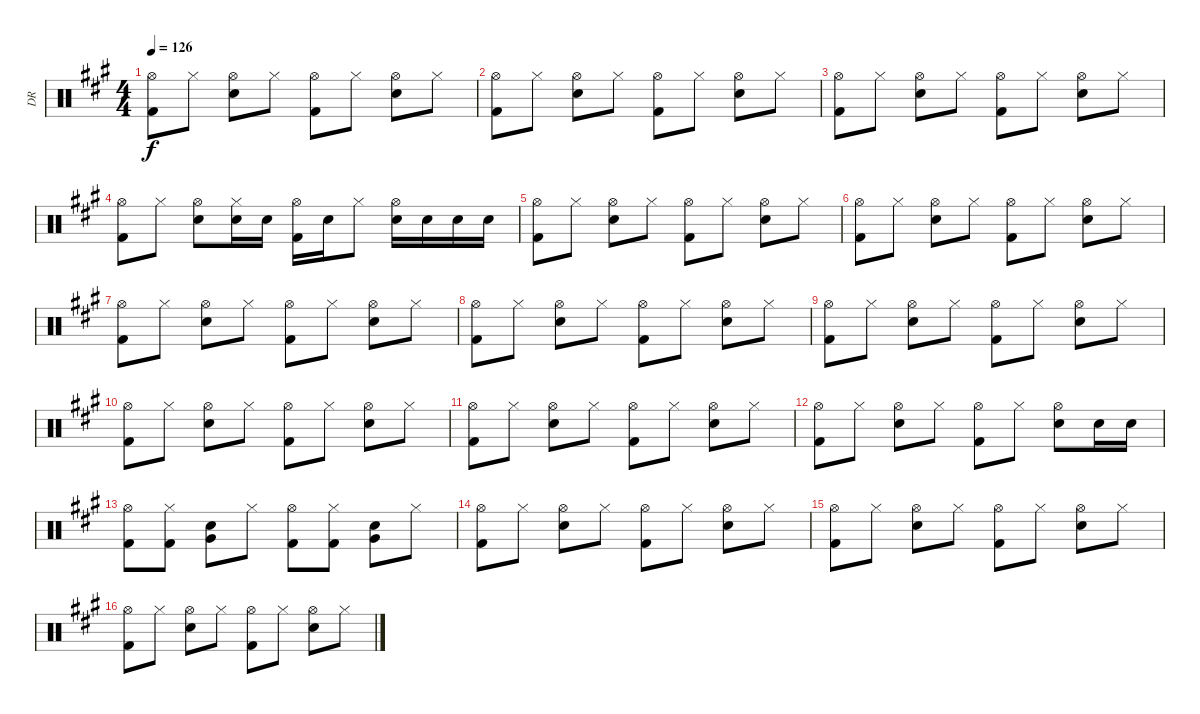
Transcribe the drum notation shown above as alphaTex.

\track ("DR" "DR") {instrument percussion}
\staff {score}
\articulation defaults
\ts (4 4)
\tempo 126
\clef neutral
\ks f#minor
("Hi-Hat (open)" "Kick (hit) 2").8{dy f} "Hi-Hat (closed)".8 ("Hi-Hat (open)" "Electric Snare (hit)").8 "Hi-Hat (closed)".8 ("Hi-Hat (open)" "Kick (hit) 2").8 "Hi-Hat (closed)".8 ("Hi-Hat (open)" "Electric Snare (hit)").8 "Hi-Hat (closed)".8 |
("Hi-Hat (open)" "Kick (hit) 2").8 "Hi-Hat (closed)".8 ("Hi-Hat (open)" "Electric Snare (hit)").8 "Hi-Hat (closed)".8 ("Hi-Hat (open)" "Kick (hit) 2").8 "Hi-Hat (closed)".8 ("Hi-Hat (open)" "Electric Snare (hit)").8 "Hi-Hat (closed)".8 |
("Hi-Hat (open)" "Kick (hit) 2").8 "Hi-Hat (closed)".8 ("Hi-Hat (open)" "Electric Snare (hit)").8 "Hi-Hat (closed)".8 ("Hi-Hat (open)" "Kick (hit) 2").8 "Hi-Hat (closed)".8 ("Hi-Hat (open)" "Electric Snare (hit)").8 "Hi-Hat (closed)".8 |
("Hi-Hat (open)" "Kick (hit) 2").8 "Hi-Hat (closed)".8 ("Hi-Hat (open)" "Electric Snare (hit)").8 ("Hi-Hat (closed)" "Electric Snare (hit)").16 "Electric Snare (hit)".16 ("Hi-Hat (open)" "Kick (hit) 2").16 "Electric Snare (hit)".16 "Hi-Hat (closed)".8 ("Hi-Hat (open)" "Electric Snare (hit)").16 "Electric Snare (hit)".16 "Electric Snare (hit)".16 "Electric Snare (hit)".16 |
("Hi-Hat (open)" "Kick (hit) 2").8 "Hi-Hat (closed)".8 ("Hi-Hat (open)" "Electric Snare (hit)").8 "Hi-Hat (closed)".8 ("Hi-Hat (open)" "Kick (hit) 2").8 "Hi-Hat (closed)".8 ("Hi-Hat (open)" "Electric Snare (hit)").8 "Hi-Hat (closed)".8 |
("Hi-Hat (open)" "Kick (hit) 2").8 "Hi-Hat (closed)".8 ("Hi-Hat (open)" "Electric Snare (hit)").8 "Hi-Hat (closed)".8 ("Hi-Hat (open)" "Kick (hit) 2").8 "Hi-Hat (closed)".8 ("Hi-Hat (open)" "Electric Snare (hit)").8 "Hi-Hat (closed)".8 |
("Hi-Hat (open)" "Kick (hit) 2").8 "Hi-Hat (closed)".8 ("Hi-Hat (open)" "Electric Snare (hit)").8 "Hi-Hat (closed)".8 ("Hi-Hat (open)" "Kick (hit) 2").8 "Hi-Hat (closed)".8 ("Hi-Hat (open)" "Electric Snare (hit)").8 "Hi-Hat (closed)".8 |
("Hi-Hat (open)" "Kick (hit) 2").8 "Hi-Hat (closed)".8 ("Hi-Hat (open)" "Electric Snare (hit)").8 "Hi-Hat (closed)".8 ("Hi-Hat (open)" "Kick (hit) 2").8 "Hi-Hat (closed)".8 ("Hi-Hat (open)" "Electric Snare (hit)").8 "Hi-Hat (closed)".8 |
("Hi-Hat (open)" "Kick (hit) 2").8 "Hi-Hat (closed)".8 ("Hi-Hat (open)" "Electric Snare (hit)").8 "Hi-Hat (closed)".8 ("Hi-Hat (open)" "Kick (hit) 2").8 "Hi-Hat (closed)".8 ("Hi-Hat (open)" "Electric Snare (hit)").8 "Hi-Hat (closed)".8 |
("Hi-Hat (open)" "Kick (hit) 2").8 "Hi-Hat (closed)".8 ("Hi-Hat (open)" "Electric Snare (hit)").8 "Hi-Hat (closed)".8 ("Hi-Hat (open)" "Kick (hit) 2").8 "Hi-Hat (closed)".8 ("Hi-Hat (open)" "Electric Snare (hit)").8 "Hi-Hat (closed)".8 |
("Hi-Hat (open)" "Kick (hit) 2").8 "Hi-Hat (closed)".8 ("Hi-Hat (open)" "Electric Snare (hit)").8 "Hi-Hat (closed)".8 ("Hi-Hat (open)" "Kick (hit) 2").8 "Hi-Hat (closed)".8 ("Hi-Hat (open)" "Electric Snare (hit)").8 "Hi-Hat (closed)".8 |
("Hi-Hat (open)" "Kick (hit) 2").8 "Hi-Hat (closed)".8 ("Hi-Hat (open)" "Electric Snare (hit)").8 "Hi-Hat (closed)".8 ("Hi-Hat (open)" "Kick (hit) 2").8 "Hi-Hat (closed)".8 ("Hi-Hat (open)" "Electric Snare (hit)").8 "Electric Snare (hit)".16 "Electric Snare (hit)".16 |
("Hi-Hat (open)" "Kick (hit) 2").8 ("Hi-Hat (closed)" "Kick (hit) 2").8 ("Very Low Tom (hit)" "Electric Snare (hit)").8 "Hi-Hat (closed)".8 ("Hi-Hat (open)" "Kick (hit) 2").8 ("Hi-Hat (closed)" "Kick (hit) 2").8 ("Very Low Tom (hit)" "Electric Snare (hit)").8 "Hi-Hat (closed)".8 |
("Hi-Hat (open)" "Kick (hit) 2").8 "Hi-Hat (closed)".8 ("Hi-Hat (open)" "Electric Snare (hit)").8 "Hi-Hat (closed)".8 ("Hi-Hat (open)" "Kick (hit) 2").8 "Hi-Hat (closed)".8 ("Hi-Hat (open)" "Electric Snare (hit)").8 "Hi-Hat (closed)".8 |
("Hi-Hat (open)" "Kick (hit) 2").8 "Hi-Hat (closed)".8 ("Hi-Hat (open)" "Electric Snare (hit)").8 "Hi-Hat (closed)".8 ("Hi-Hat (open)" "Kick (hit) 2").8 "Hi-Hat (closed)".8 ("Hi-Hat (open)" "Electric Snare (hit)").8 "Hi-Hat (closed)".8 |
("Hi-Hat (open)" "Kick (hit) 2").8 "Hi-Hat (closed)".8 ("Hi-Hat (open)" "Electric Snare (hit)").8 "Hi-Hat (closed)".8 ("Hi-Hat (open)" "Kick (hit) 2").8 "Hi-Hat (closed)".8 ("Hi-Hat (open)" "Electric Snare (hit)").8 "Hi-Hat (closed)".8
